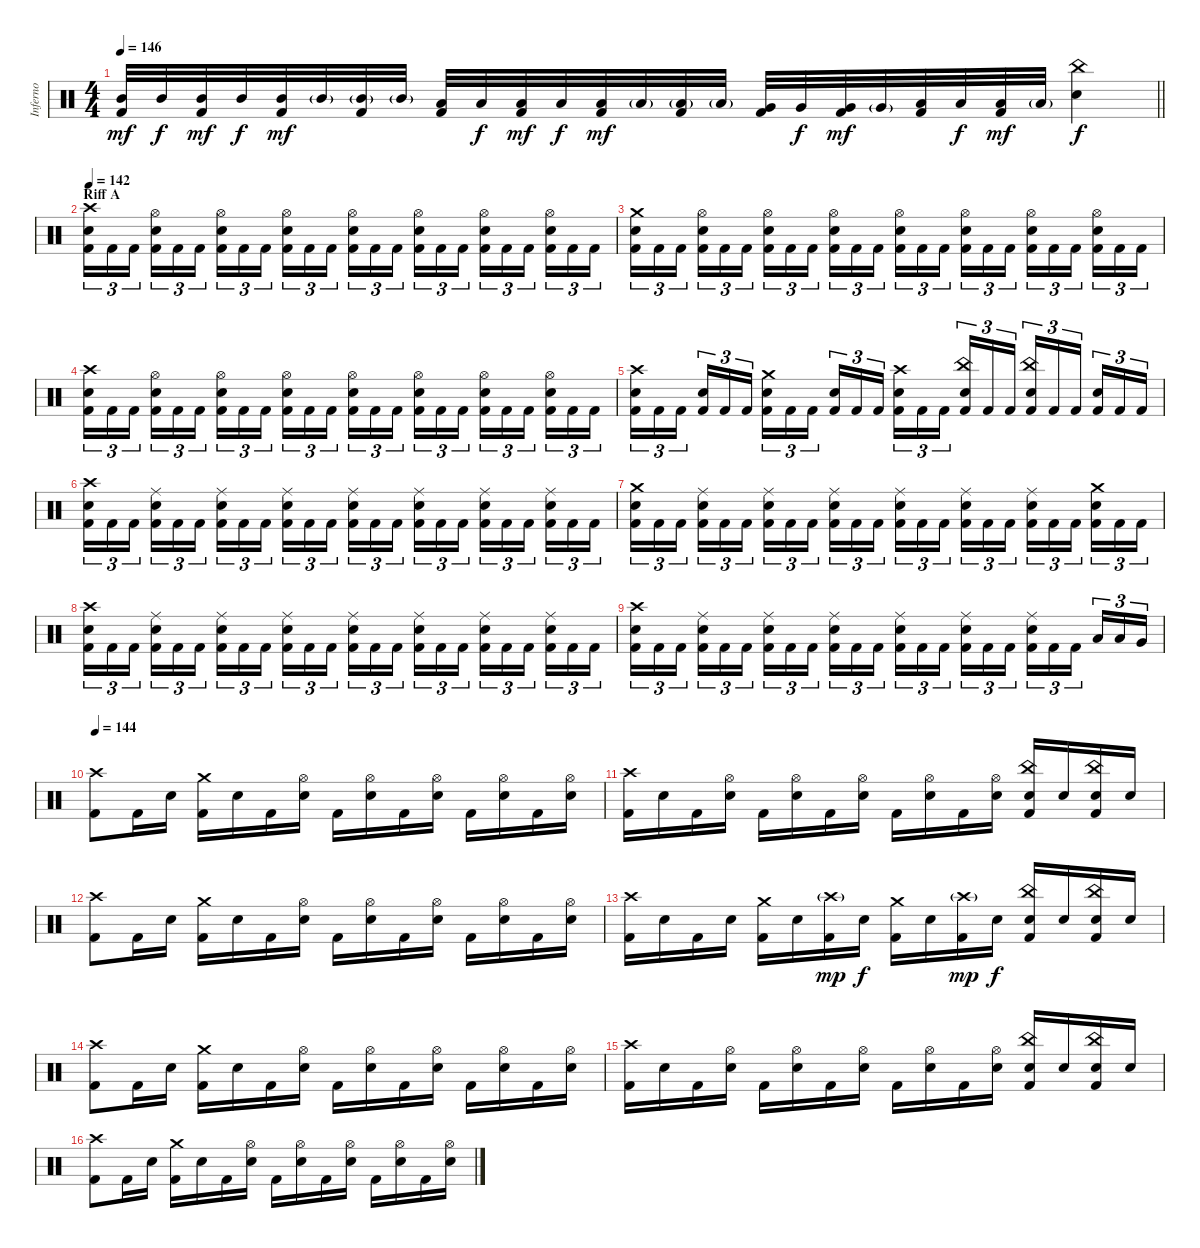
\track ("Inferno" "Inferno") {instrument percussion}
\staff {score}
\articulation defaults
\ts (4 4)
\tempo 146
\clef neutral
\barLineRight lightlight
\ks c
("Mid Tom (hit)" "Kick (hit) 2").32{dy mf} "Mid Tom (hit)".32{dy f} ("Mid Tom (hit)" "Kick (hit) 2").32{dy mf} "Mid Tom (hit)".32{dy f} ("Mid Tom (hit)" "Kick (hit) 2").32{dy mf} "Mid Tom (hit)"{g}.32 ("Mid Tom (hit)"{g} "Kick (hit) 2").32 "Mid Tom (hit)"{g}.32 ("Low Tom (hit)" "Kick (hit) 2").32 "Low Tom (hit)".32{dy f} ("Low Tom (hit)" "Kick (hit) 2").32{dy mf} "Low Tom (hit)".32{dy f} ("Low Tom (hit)" "Kick (hit) 2").32{dy mf} "Low Tom (hit)"{g}.32 ("Low Tom (hit)"{g} "Kick (hit) 2").32 "Low Tom (hit)"{g}.32 ("Very Low Tom (hit)" "Kick (hit) 2").32 "Very Low Tom (hit)".32{dy f} ("Very Low Tom (hit)" "Kick (hit) 2").32{dy mf} "Very Low Tom (hit)"{g}.32 ("Low Floor Tom (hit)" "Kick (hit) 2").32 "Low Floor Tom (hit)".32{dy f} ("Low Floor Tom (hit)" "Kick (hit) 2").32{dy mf} "Low Floor Tom (hit)"{g}.32 ("China (hit)" "Snare (hit) 2").4{dy f} |
\section ("" "Riff A")
\tempo 142
("Crash high (hit)" "Snare (hit) 2" "Kick (hit) 2").16{tu (3 2)} "Kick (hit) 2".16{tu (3 2)} "Kick (hit) 2".16{tu (3 2) beam splitsecondary} ("Hi-Hat (open)" "Snare (hit) 2" "Kick (hit) 2").16{tu (3 2)} "Kick (hit) 2".16{tu (3 2)} "Kick (hit) 2".16{tu (3 2)} ("Hi-Hat (open)" "Snare (hit) 2" "Kick (hit) 2").16{tu (3 2)} "Kick (hit) 2".16{tu (3 2)} "Kick (hit) 2".16{tu (3 2) beam splitsecondary} ("Hi-Hat (open)" "Snare (hit) 2" "Kick (hit) 2").16{tu (3 2)} "Kick (hit) 2".16{tu (3 2)} "Kick (hit) 2".16{tu (3 2)} ("Hi-Hat (open)" "Snare (hit) 2" "Kick (hit) 2").16{tu (3 2)} "Kick (hit) 2".16{tu (3 2)} "Kick (hit) 2".16{tu (3 2) beam splitsecondary} ("Hi-Hat (open)" "Snare (hit) 2" "Kick (hit) 2").16{tu (3 2)} "Kick (hit) 2".16{tu (3 2)} "Kick (hit) 2".16{tu (3 2)} ("Hi-Hat (open)" "Snare (hit) 2" "Kick (hit) 2").16{tu (3 2)} "Kick (hit) 2".16{tu (3 2)} "Kick (hit) 2".16{tu (3 2) beam splitsecondary} ("Hi-Hat (open)" "Snare (hit) 2" "Kick (hit) 2").16{tu (3 2)} "Kick (hit) 2".16{tu (3 2)} "Kick (hit) 2".16{tu (3 2)} |
("Crash medium (hit)" "Snare (hit) 2" "Kick (hit) 2").16{tu (3 2)} "Kick (hit) 2".16{tu (3 2)} "Kick (hit) 2".16{tu (3 2) beam splitsecondary} ("Hi-Hat (open)" "Snare (hit) 2" "Kick (hit) 2").16{tu (3 2)} "Kick (hit) 2".16{tu (3 2)} "Kick (hit) 2".16{tu (3 2)} ("Hi-Hat (open)" "Snare (hit) 2" "Kick (hit) 2").16{tu (3 2)} "Kick (hit) 2".16{tu (3 2)} "Kick (hit) 2".16{tu (3 2) beam splitsecondary} ("Hi-Hat (open)" "Snare (hit) 2" "Kick (hit) 2").16{tu (3 2)} "Kick (hit) 2".16{tu (3 2)} "Kick (hit) 2".16{tu (3 2)} ("Hi-Hat (open)" "Snare (hit) 2" "Kick (hit) 2").16{tu (3 2)} "Kick (hit) 2".16{tu (3 2)} "Kick (hit) 2".16{tu (3 2) beam splitsecondary} ("Hi-Hat (open)" "Snare (hit) 2" "Kick (hit) 2").16{tu (3 2)} "Kick (hit) 2".16{tu (3 2)} "Kick (hit) 2".16{tu (3 2)} ("Hi-Hat (open)" "Snare (hit) 2" "Kick (hit) 2").16{tu (3 2)} "Kick (hit) 2".16{tu (3 2)} "Kick (hit) 2".16{tu (3 2) beam splitsecondary} ("Hi-Hat (open)" "Snare (hit) 2" "Kick (hit) 2").16{tu (3 2)} "Kick (hit) 2".16{tu (3 2)} "Kick (hit) 2".16{tu (3 2)} |
("Crash high (hit)" "Snare (hit) 2" "Kick (hit) 2").16{tu (3 2)} "Kick (hit) 2".16{tu (3 2)} "Kick (hit) 2".16{tu (3 2) beam splitsecondary} ("Hi-Hat (open)" "Snare (hit) 2" "Kick (hit) 2").16{tu (3 2)} "Kick (hit) 2".16{tu (3 2)} "Kick (hit) 2".16{tu (3 2)} ("Hi-Hat (open)" "Snare (hit) 2" "Kick (hit) 2").16{tu (3 2)} "Kick (hit) 2".16{tu (3 2)} "Kick (hit) 2".16{tu (3 2) beam splitsecondary} ("Hi-Hat (open)" "Snare (hit) 2" "Kick (hit) 2").16{tu (3 2)} "Kick (hit) 2".16{tu (3 2)} "Kick (hit) 2".16{tu (3 2)} ("Hi-Hat (open)" "Snare (hit) 2" "Kick (hit) 2").16{tu (3 2)} "Kick (hit) 2".16{tu (3 2)} "Kick (hit) 2".16{tu (3 2) beam splitsecondary} ("Hi-Hat (open)" "Snare (hit) 2" "Kick (hit) 2").16{tu (3 2)} "Kick (hit) 2".16{tu (3 2)} "Kick (hit) 2".16{tu (3 2)} ("Hi-Hat (open)" "Snare (hit) 2" "Kick (hit) 2").16{tu (3 2)} "Kick (hit) 2".16{tu (3 2)} "Kick (hit) 2".16{tu (3 2) beam splitsecondary} ("Hi-Hat (open)" "Snare (hit) 2" "Kick (hit) 2").16{tu (3 2)} "Kick (hit) 2".16{tu (3 2)} "Kick (hit) 2".16{tu (3 2)} |
("Crash high (hit)" "Snare (hit) 2" "Kick (hit) 2").16{tu (3 2)} "Kick (hit) 2".16{tu (3 2)} "Kick (hit) 2".16{tu (3 2) beam splitsecondary} ("Snare (hit) 2" "Kick (hit) 2").16{tu (3 2)} "Kick (hit) 2".16{tu (3 2)} "Kick (hit) 2".16{tu (3 2)} ("Crash medium (hit)" "Snare (hit) 2" "Kick (hit) 2").16{tu (3 2)} "Kick (hit) 2".16{tu (3 2)} "Kick (hit) 2".16{tu (3 2) beam splitsecondary} ("Snare (hit) 2" "Kick (hit) 2").16{tu (3 2)} "Kick (hit) 2".16{tu (3 2)} "Kick (hit) 2".16{tu (3 2)} ("Crash high (hit)" "Snare (hit) 2" "Kick (hit) 2").16{tu (3 2)} "Kick (hit) 2".16{tu (3 2)} "Kick (hit) 2".16{tu (3 2) beam splitsecondary} ("China (hit)" "Snare (hit) 2" "Kick (hit) 2").16{tu (3 2)} "Kick (hit) 2".16{tu (3 2)} "Kick (hit) 2".16{tu (3 2)} ("China (hit)" "Snare (hit) 2" "Kick (hit) 2").16{tu (3 2)} "Kick (hit) 2".16{tu (3 2)} "Kick (hit) 2".16{tu (3 2) beam splitsecondary} ("Snare (hit) 2" "Kick (hit) 2").16{tu (3 2)} "Kick (hit) 2".16{tu (3 2)} "Kick (hit) 2".16{tu (3 2)} |
("Crash high (hit)" "Snare (hit) 2" "Kick (hit) 2").16{tu (3 2)} "Kick (hit) 2".16{tu (3 2)} "Kick (hit) 2".16{tu (3 2) beam splitsecondary} ("Ride (middle)" "Snare (hit) 2" "Kick (hit) 2").16{tu (3 2)} "Kick (hit) 2".16{tu (3 2)} "Kick (hit) 2".16{tu (3 2)} ("Ride (middle)" "Snare (hit) 2" "Kick (hit) 2").16{tu (3 2)} "Kick (hit) 2".16{tu (3 2)} "Kick (hit) 2".16{tu (3 2) beam splitsecondary} ("Ride (middle)" "Snare (hit) 2" "Kick (hit) 2").16{tu (3 2)} "Kick (hit) 2".16{tu (3 2)} "Kick (hit) 2".16{tu (3 2)} ("Ride (middle)" "Snare (hit) 2" "Kick (hit) 2").16{tu (3 2)} "Kick (hit) 2".16{tu (3 2)} "Kick (hit) 2".16{tu (3 2) beam splitsecondary} ("Ride (middle)" "Snare (hit) 2" "Kick (hit) 2").16{tu (3 2)} "Kick (hit) 2".16{tu (3 2)} "Kick (hit) 2".16{tu (3 2)} ("Ride (middle)" "Snare (hit) 2" "Kick (hit) 2").16{tu (3 2)} "Kick (hit) 2".16{tu (3 2)} "Kick (hit) 2".16{tu (3 2) beam splitsecondary} ("Ride (middle)" "Snare (hit) 2" "Kick (hit) 2").16{tu (3 2)} "Kick (hit) 2".16{tu (3 2)} "Kick (hit) 2".16{tu (3 2)} |
("Crash medium (hit)" "Snare (hit) 2" "Kick (hit) 2").16{tu (3 2)} "Kick (hit) 2".16{tu (3 2)} "Kick (hit) 2".16{tu (3 2) beam splitsecondary} ("Ride (middle)" "Snare (hit) 2" "Kick (hit) 2").16{tu (3 2)} "Kick (hit) 2".16{tu (3 2)} "Kick (hit) 2".16{tu (3 2)} ("Ride (middle)" "Snare (hit) 2" "Kick (hit) 2").16{tu (3 2)} "Kick (hit) 2".16{tu (3 2)} "Kick (hit) 2".16{tu (3 2) beam splitsecondary} ("Ride (middle)" "Snare (hit) 2" "Kick (hit) 2").16{tu (3 2)} "Kick (hit) 2".16{tu (3 2)} "Kick (hit) 2".16{tu (3 2)} ("Ride (middle)" "Snare (hit) 2" "Kick (hit) 2").16{tu (3 2)} "Kick (hit) 2".16{tu (3 2)} "Kick (hit) 2".16{tu (3 2) beam splitsecondary} ("Ride (middle)" "Snare (hit) 2" "Kick (hit) 2").16{tu (3 2)} "Kick (hit) 2".16{tu (3 2)} "Kick (hit) 2".16{tu (3 2)} ("Ride (middle)" "Snare (hit) 2" "Kick (hit) 2").16{tu (3 2)} "Kick (hit) 2".16{tu (3 2)} "Kick (hit) 2".16{tu (3 2) beam splitsecondary} ("Crash medium (hit)" "Snare (hit) 2" "Kick (hit) 2").16{tu (3 2)} "Kick (hit) 2".16{tu (3 2)} "Kick (hit) 2".16{tu (3 2)} |
("Crash high (hit)" "Snare (hit) 2" "Kick (hit) 2").16{tu (3 2)} "Kick (hit) 2".16{tu (3 2)} "Kick (hit) 2".16{tu (3 2) beam splitsecondary} ("Ride (middle)" "Snare (hit) 2" "Kick (hit) 2").16{tu (3 2)} "Kick (hit) 2".16{tu (3 2)} "Kick (hit) 2".16{tu (3 2)} ("Ride (middle)" "Snare (hit) 2" "Kick (hit) 2").16{tu (3 2)} "Kick (hit) 2".16{tu (3 2)} "Kick (hit) 2".16{tu (3 2) beam splitsecondary} ("Ride (middle)" "Snare (hit) 2" "Kick (hit) 2").16{tu (3 2)} "Kick (hit) 2".16{tu (3 2)} "Kick (hit) 2".16{tu (3 2)} ("Ride (middle)" "Snare (hit) 2" "Kick (hit) 2").16{tu (3 2)} "Kick (hit) 2".16{tu (3 2)} "Kick (hit) 2".16{tu (3 2) beam splitsecondary} ("Ride (middle)" "Snare (hit) 2" "Kick (hit) 2").16{tu (3 2)} "Kick (hit) 2".16{tu (3 2)} "Kick (hit) 2".16{tu (3 2)} ("Ride (middle)" "Snare (hit) 2" "Kick (hit) 2").16{tu (3 2)} "Kick (hit) 2".16{tu (3 2)} "Kick (hit) 2".16{tu (3 2) beam splitsecondary} ("Ride (middle)" "Snare (hit) 2" "Kick (hit) 2").16{tu (3 2)} "Kick (hit) 2".16{tu (3 2)} "Kick (hit) 2".16{tu (3 2)} |
("Crash high (hit)" "Snare (hit) 2" "Kick (hit) 2").16{tu (3 2)} "Kick (hit) 2".16{tu (3 2)} "Kick (hit) 2".16{tu (3 2) beam splitsecondary} ("Ride (middle)" "Snare (hit) 2" "Kick (hit) 2").16{tu (3 2)} "Kick (hit) 2".16{tu (3 2)} "Kick (hit) 2".16{tu (3 2)} ("Ride (middle)" "Snare (hit) 2" "Kick (hit) 2").16{tu (3 2)} "Kick (hit) 2".16{tu (3 2)} "Kick (hit) 2".16{tu (3 2) beam splitsecondary} ("Ride (middle)" "Snare (hit) 2" "Kick (hit) 2").16{tu (3 2)} "Kick (hit) 2".16{tu (3 2)} "Kick (hit) 2".16{tu (3 2)} ("Ride (middle)" "Snare (hit) 2" "Kick (hit) 2").16{tu (3 2)} "Kick (hit) 2".16{tu (3 2)} "Kick (hit) 2".16{tu (3 2) beam splitsecondary} ("Ride (middle)" "Snare (hit) 2" "Kick (hit) 2").16{tu (3 2)} "Kick (hit) 2".16{tu (3 2)} "Kick (hit) 2".16{tu (3 2)} ("Ride (middle)" "Snare (hit) 2" "Kick (hit) 2").16{tu (3 2)} "Kick (hit) 2".16{tu (3 2)} "Kick (hit) 2".16{tu (3 2) beam splitsecondary} "Low Tom (hit)".16{tu (3 2)} "Low Tom (hit)".16{tu (3 2)} "Very Low Tom (hit)".16{tu (3 2)} |
\tempo 144
("Crash high (hit)" "Kick (hit) 2").8 "Kick (hit) 2".16 "Snare (hit) 2".16 ("Crash medium (hit)" "Kick (hit) 2").16 "Snare (hit) 2".16 "Kick (hit) 2".16 ("Hi-Hat (open)" "Snare (hit) 2").16 "Kick (hit) 2".16 ("Hi-Hat (open)" "Snare (hit) 2").16 "Kick (hit) 2".16 ("Hi-Hat (open)" "Snare (hit) 2").16 "Kick (hit) 2".16 ("Hi-Hat (open)" "Snare (hit) 2").16 "Kick (hit) 2".16 ("Hi-Hat (open)" "Snare (hit) 2").16 |
("Crash high (hit)" "Kick (hit) 2").16 "Snare (hit) 2".16 "Kick (hit) 2".16 ("Hi-Hat (open)" "Snare (hit) 2").16 "Kick (hit) 2".16 ("Hi-Hat (open)" "Snare (hit) 2").16 "Kick (hit) 2".16 ("Hi-Hat (open)" "Snare (hit) 2").16 "Kick (hit) 2".16 ("Hi-Hat (open)" "Snare (hit) 2").16 "Kick (hit) 2".16 ("Hi-Hat (open)" "Snare (hit) 2").16 ("China (hit)" "Snare (hit) 2" "Kick (hit) 2").16 "Snare (hit) 2".16 ("China (hit)" "Snare (hit) 2" "Kick (hit) 2").16 "Snare (hit) 2".16 |
("Crash high (hit)" "Kick (hit) 2").8 "Kick (hit) 2".16 "Snare (hit) 2".16 ("Crash medium (hit)" "Kick (hit) 2").16 "Snare (hit) 2".16 "Kick (hit) 2".16 ("Hi-Hat (open)" "Snare (hit) 2").16 "Kick (hit) 2".16 ("Hi-Hat (open)" "Snare (hit) 2").16 "Kick (hit) 2".16 ("Hi-Hat (open)" "Snare (hit) 2").16 "Kick (hit) 2".16 ("Hi-Hat (open)" "Snare (hit) 2").16 "Kick (hit) 2".16 ("Hi-Hat (open)" "Snare (hit) 2").16 |
("Crash high (hit)" "Kick (hit) 2").16 "Snare (hit) 2".16 "Kick (hit) 2".16 "Snare (hit) 2".16 ("Crash medium (hit)" "Kick (hit) 2").16 "Snare (hit) 2".16 ("Crash high (hit)"{g} "Kick (hit) 2").16{dy mp} "Snare (hit) 2".16{dy f} ("Crash medium (hit)" "Kick (hit) 2").16 "Snare (hit) 2".16 ("Crash high (hit)"{g} "Kick (hit) 2").16{dy mp} "Snare (hit) 2".16{dy f} ("China (hit)" "Snare (hit) 2" "Kick (hit) 2").16 "Snare (hit) 2".16 ("China (hit)" "Snare (hit) 2" "Kick (hit) 2").16 "Snare (hit) 2".16 |
("Crash high (hit)" "Kick (hit) 2").8 "Kick (hit) 2".16 "Snare (hit) 2".16 ("Crash medium (hit)" "Kick (hit) 2").16 "Snare (hit) 2".16 "Kick (hit) 2".16 ("Hi-Hat (open)" "Snare (hit) 2").16 "Kick (hit) 2".16 ("Hi-Hat (open)" "Snare (hit) 2").16 "Kick (hit) 2".16 ("Hi-Hat (open)" "Snare (hit) 2").16 "Kick (hit) 2".16 ("Hi-Hat (open)" "Snare (hit) 2").16 "Kick (hit) 2".16 ("Hi-Hat (open)" "Snare (hit) 2").16 |
("Crash high (hit)" "Kick (hit) 2").16 "Snare (hit) 2".16 "Kick (hit) 2".16 ("Hi-Hat (open)" "Snare (hit) 2").16 "Kick (hit) 2".16 ("Hi-Hat (open)" "Snare (hit) 2").16 "Kick (hit) 2".16 ("Hi-Hat (open)" "Snare (hit) 2").16 "Kick (hit) 2".16 ("Hi-Hat (open)" "Snare (hit) 2").16 "Kick (hit) 2".16 ("Hi-Hat (open)" "Snare (hit) 2").16 ("China (hit)" "Snare (hit) 2" "Kick (hit) 2").16 "Snare (hit) 2".16 ("China (hit)" "Snare (hit) 2" "Kick (hit) 2").16 "Snare (hit) 2".16 |
("Crash high (hit)" "Kick (hit) 2").8 "Kick (hit) 2".16 "Snare (hit) 2".16 ("Crash medium (hit)" "Kick (hit) 2").16 "Snare (hit) 2".16 "Kick (hit) 2".16 ("Hi-Hat (open)" "Snare (hit) 2").16 "Kick (hit) 2".16 ("Hi-Hat (open)" "Snare (hit) 2").16 "Kick (hit) 2".16 ("Hi-Hat (open)" "Snare (hit) 2").16 "Kick (hit) 2".16 ("Hi-Hat (open)" "Snare (hit) 2").16 "Kick (hit) 2".16 ("Hi-Hat (open)" "Snare (hit) 2").16
